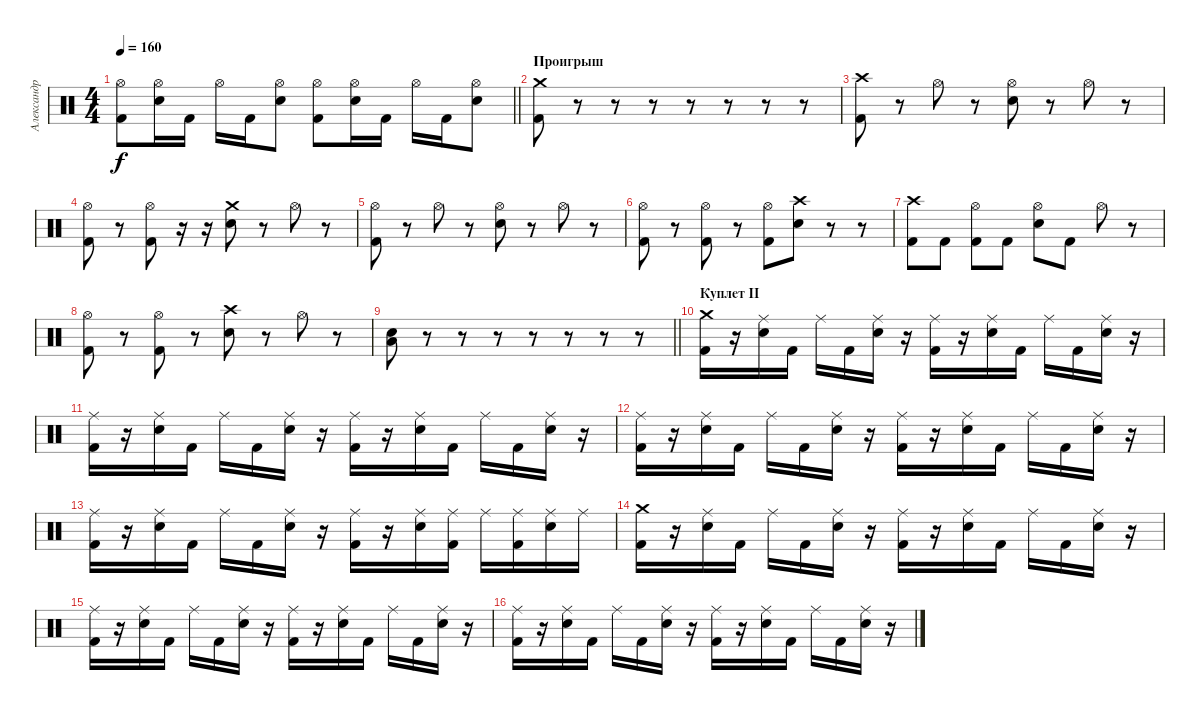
\track ("Александр Карпухин" "Александр ") {instrument percussion}
\staff {score}
\articulation defaults
\ts (4 4)
\tempo 160
\clef neutral
\barLineRight lightlight
\ks c
("Hi-Hat (open)" "Kick (hit) 2").8{dy f} ("Hi-Hat (open)" "Electric Snare (hit)").16 "Kick (hit) 2".16 "Hi-Hat (open)".16 "Kick (hit) 2".16 ("Hi-Hat (open)" "Electric Snare (hit)").8 ("Hi-Hat (open)" "Kick (hit) 2").8 ("Hi-Hat (open)" "Electric Snare (hit)").16 "Kick (hit) 2".16 "Hi-Hat (open)".16 "Kick (hit) 2".16 ("Hi-Hat (open)" "Electric Snare (hit)").8 |
\section ("" "Проигрыш")
("Crash medium (hit)" "Kick (hit) 2").8 r.8 r.8{volume 0} r.8 r.8 r.8 r.8 r.8 |
("Crash high (hit)" "Kick (hit) 2").8{volume 16} r.8 "Hi-Hat (open)".8 r.8 ("Hi-Hat (open)" "Electric Snare (hit)").8 r.8 "Hi-Hat (open)".8 r.8 |
("Hi-Hat (open)" "Kick (hit) 2").8 r.8 ("Hi-Hat (open)" "Kick (hit) 2").8 r.16 r.16 ("Crash medium (hit)" "Electric Snare (hit)").8 r.8 "Hi-Hat (open)".8 r.8 |
("Hi-Hat (open)" "Kick (hit) 2").8 r.8 "Hi-Hat (open)".8 r.8 ("Hi-Hat (open)" "Electric Snare (hit)").8 r.8 "Hi-Hat (open)".8 r.8 |
("Hi-Hat (open)" "Kick (hit) 2").8 r.8 ("Hi-Hat (open)" "Kick (hit) 2").8 r.8 ("Hi-Hat (open)" "Kick (hit) 2").8 ("Crash high (hit)" "Electric Snare (hit)").8 r.8 r.8 |
("Crash high (hit)" "Kick (hit) 2").8 "Kick (hit) 2".8 ("Hi-Hat (open)" "Kick (hit) 2").8 "Kick (hit) 2".8 ("Hi-Hat (open)" "Electric Snare (hit)").8 "Kick (hit) 2".8 "Hi-Hat (open)".8 r.8 |
("Hi-Hat (open)" "Kick (hit) 2").8 r.8 ("Hi-Hat (open)" "Kick (hit) 2").8 r.8 ("Crash high (hit)" "Electric Snare (hit)").8 r.8 "Hi-Hat (open)".8 r.8 |
\barLineRight lightlight
("Low Floor Tom (hit)" "Electric Snare (hit)").8 r.8 r.8 r.8 r.8 r.8 r.8 r.8 |
\section ("" "Куплет II")
("Crash medium (hit)" "Kick (hit) 2").16 r.16 ("Ride (middle)" "Electric Snare (hit)").16 "Kick (hit) 2".16 "Ride (middle)".16 "Kick (hit) 2".16 ("Ride (middle)" "Electric Snare (hit)").16 r.16 ("Ride (middle)" "Kick (hit) 2").16 r.16 ("Ride (middle)" "Electric Snare (hit)").16 "Kick (hit) 2".16 "Ride (middle)".16 "Kick (hit) 2".16 ("Ride (middle)" "Electric Snare (hit)").16 r.16 |
("Ride (middle)" "Kick (hit) 2").16 r.16 ("Ride (middle)" "Electric Snare (hit)").16 "Kick (hit) 2".16 "Ride (middle)".16 "Kick (hit) 2".16 ("Ride (middle)" "Electric Snare (hit)").16 r.16 ("Ride (middle)" "Kick (hit) 2").16 r.16 ("Ride (middle)" "Electric Snare (hit)").16 "Kick (hit) 2".16 "Ride (middle)".16 "Kick (hit) 2".16 ("Ride (middle)" "Electric Snare (hit)").16 r.16 |
("Ride (middle)" "Kick (hit) 2").16 r.16 ("Ride (middle)" "Electric Snare (hit)").16 "Kick (hit) 2".16 "Ride (middle)".16 "Kick (hit) 2".16 ("Ride (middle)" "Electric Snare (hit)").16 r.16 ("Ride (middle)" "Kick (hit) 2").16 r.16 ("Ride (middle)" "Electric Snare (hit)").16 "Kick (hit) 2".16 "Ride (middle)".16 "Kick (hit) 2".16 ("Ride (middle)" "Electric Snare (hit)").16 r.16 |
("Ride (middle)" "Kick (hit) 2").16 r.16 ("Ride (middle)" "Electric Snare (hit)").16 "Kick (hit) 2".16 "Ride (middle)".16 "Kick (hit) 2".16 ("Ride (middle)" "Electric Snare (hit)").16 r.16 ("Ride (middle)" "Kick (hit) 2").16 r.16 ("Ride (middle)" "Electric Snare (hit)").16 ("Ride (middle)" "Kick (hit) 2").16 "Ride (middle)".16 ("Ride (middle)" "Kick (hit) 2").16 ("Ride (middle)" "Electric Snare (hit)").16 "Ride (middle)".16 |
("Crash medium (hit)" "Kick (hit) 2").16 r.16 ("Ride (middle)" "Electric Snare (hit)").16 "Kick (hit) 2".16 "Ride (middle)".16 "Kick (hit) 2".16 ("Ride (middle)" "Electric Snare (hit)").16 r.16 ("Ride (middle)" "Kick (hit) 2").16 r.16 ("Ride (middle)" "Electric Snare (hit)").16 "Kick (hit) 2".16 "Ride (middle)".16 "Kick (hit) 2".16 ("Ride (middle)" "Electric Snare (hit)").16 r.16 |
("Ride (middle)" "Kick (hit) 2").16 r.16 ("Ride (middle)" "Electric Snare (hit)").16 "Kick (hit) 2".16 "Ride (middle)".16 "Kick (hit) 2".16 ("Ride (middle)" "Electric Snare (hit)").16 r.16 ("Ride (middle)" "Kick (hit) 2").16 r.16 ("Ride (middle)" "Electric Snare (hit)").16 "Kick (hit) 2".16 "Ride (middle)".16 "Kick (hit) 2".16 ("Ride (middle)" "Electric Snare (hit)").16 r.16 |
("Ride (middle)" "Kick (hit) 2").16 r.16 ("Ride (middle)" "Electric Snare (hit)").16 "Kick (hit) 2".16 "Ride (middle)".16 "Kick (hit) 2".16 ("Ride (middle)" "Electric Snare (hit)").16 r.16 ("Ride (middle)" "Kick (hit) 2").16 r.16 ("Ride (middle)" "Electric Snare (hit)").16 "Kick (hit) 2".16 "Ride (middle)".16 "Kick (hit) 2".16 ("Ride (middle)" "Electric Snare (hit)").16 r.16
